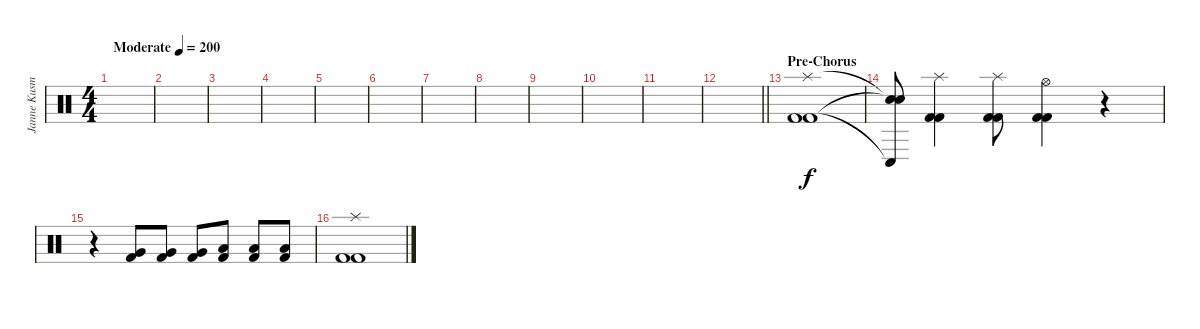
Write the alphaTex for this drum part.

\track ("Janne Kusmin" "Janne Kusm") {instrument percussion}
\staff {score}
\articulation defaults
\ts (4 4)
\tempo (200 "Moderate")
\clef neutral
\ks c
|
|
|
|
|
|
|
|
|
|
|
\barLineRight lightlight
|
\section ("" "Pre-Chorus")
("Splash (hit)" "Kick (hit) 2" "Kick (hit) 2").1 |
("Snare (hit)"{t} "Snare (hit)"{t} "Conga low (hit)"{t}).8 ("Splash (hit)" "Kick (hit) 2" "Kick (hit) 2").4 ("Splash (hit)" "Kick (hit) 2" "Kick (hit) 2").8 ("Hi-Hat (open)" "Kick (hit) 2" "Kick (hit) 2").4 r.4 |
r.4 ("Very Low Tom (hit)" "Kick (hit) 2").8 ("Very Low Tom (hit)" "Kick (hit) 2").8 ("Very Low Tom (hit)" "Kick (hit) 2").8 ("Low Tom (hit)" "Kick (hit) 2").8 ("Low Tom (hit)" "Kick (hit) 2").8 ("Low Tom (hit)" "Kick (hit) 2").8 |
("Splash (hit)" "Kick (hit) 2" "Kick (hit) 2").1
